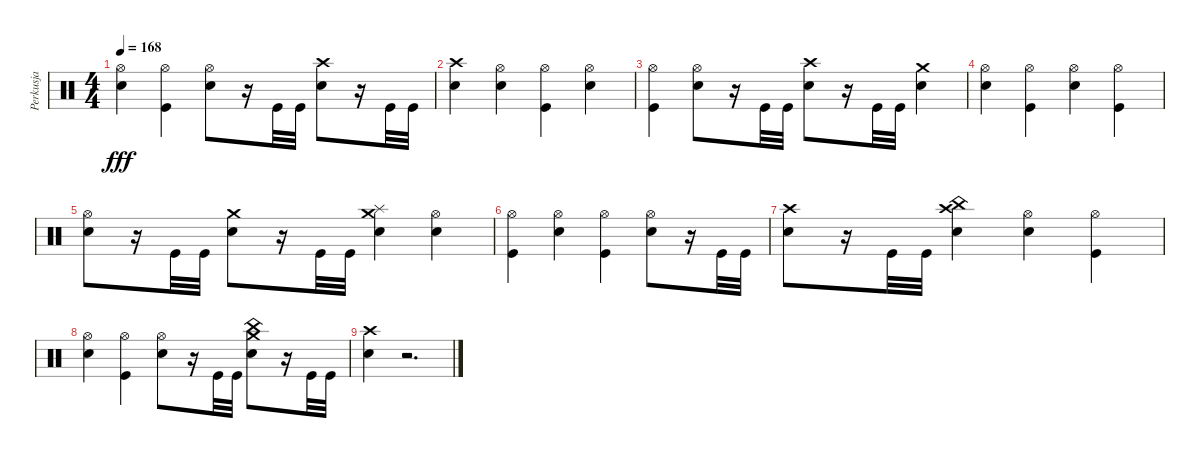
\track ("Perkusja" "Perkusja") {instrument percussion}
\staff {score}
\articulation defaults
\ts (4 4)
\tempo 168
\clef neutral
\ks c
("Hi-Hat (open)" "Snare (hit) 2").4{dy fff} ("Hi-Hat (open)" "Kick (hit)").4 ("Hi-Hat (open)" "Snare (hit) 2").8 r.16 "Kick (hit)".32 "Kick (hit)".32 ("Crash high (hit)" "Snare (hit) 2").8 r.16 "Kick (hit)".32 "Kick (hit)".32 |
("Crash high (hit)" "Snare (hit) 2").4 ("Hi-Hat (open)" "Snare (hit) 2").4 ("Hi-Hat (open)" "Kick (hit)").4 ("Hi-Hat (open)" "Snare (hit) 2").4 |
("Hi-Hat (open)" "Kick (hit)").4 ("Hi-Hat (open)" "Snare (hit) 2").8 r.16 "Kick (hit)".32 "Kick (hit)".32 ("Crash high (hit)" "Snare (hit) 2").8 r.16 "Kick (hit)".32 "Kick (hit)".32 ("Crash medium (hit)" "Snare (hit) 2").4 |
("Hi-Hat (open)" "Snare (hit) 2").4 ("Hi-Hat (open)" "Kick (hit)").4 ("Hi-Hat (open)" "Snare (hit) 2").4 ("Hi-Hat (open)" "Kick (hit)").4 |
("Hi-Hat (open)" "Snare (hit) 2").8 r.16 "Kick (hit)".32 "Kick (hit)".32 ("Crash medium (hit)" "Snare (hit) 2").8 r.16 "Kick (hit)".32 "Kick (hit)".32 ("Crash medium (hit)" "Splash (hit)" "Snare (hit) 2").4 ("Hi-Hat (open)" "Snare (hit) 2").4 |
("Hi-Hat (open)" "Kick (hit)").4 ("Hi-Hat (open)" "Snare (hit) 2").4 ("Hi-Hat (open)" "Kick (hit)").4 ("Hi-Hat (open)" "Snare (hit) 2").8 r.16 "Kick (hit)".32 "Kick (hit)".32 |
("Crash high (hit)" "Snare (hit) 2").8 r.16 "Kick (hit)".32 "Kick (hit)".32 ("Crash high (hit)" "China (hit)" "Snare (hit) 2").4 ("Hi-Hat (open)" "Snare (hit) 2").4 ("Hi-Hat (open)" "Kick (hit)").4 |
("Hi-Hat (open)" "Snare (hit) 2").4 ("Hi-Hat (open)" "Kick (hit)").4 ("Hi-Hat (open)" "Snare (hit) 2").8 r.16 "Kick (hit)".32 "Kick (hit)".32 ("Crash medium (hit)" "China (hit)" "Snare (hit) 2").8 r.16 "Kick (hit)".32 "Kick (hit)".32 |
("Crash high (hit)" "Snare (hit) 2").4 r.2{d}
